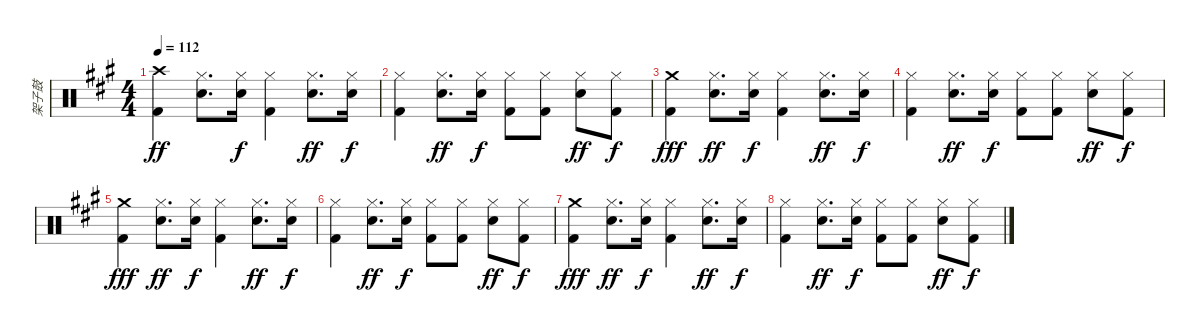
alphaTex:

\track ("架子鼓" "架子鼓") {instrument percussion}
\staff {score}
\articulation defaults
\ts (4 4)
\tempo 112
\clef neutral
\ks a
("Crash high (hit)" "Kick (hit) 2").4{dy ff} ("Hi-Hat (closed)" "Electric Snare (hit)").8{d} ("Hi-Hat (closed)" "Electric Snare (hit)").16{dy f} ("Hi-Hat (closed)" "Kick (hit) 2").4 ("Hi-Hat (closed)" "Electric Snare (hit)").8{d dy ff} ("Hi-Hat (closed)" "Electric Snare (hit)").16{dy f} |
("Hi-Hat (closed)" "Kick (hit) 2").4 ("Hi-Hat (closed)" "Electric Snare (hit)").8{d dy ff} ("Hi-Hat (closed)" "Electric Snare (hit)").16{dy f} ("Hi-Hat (closed)" "Kick (hit) 2").8 ("Hi-Hat (closed)" "Kick (hit) 2").8 ("Hi-Hat (closed)" "Electric Snare (hit)").8{dy ff} ("Hi-Hat (closed)" "Kick (hit) 2").8{dy f} |
("Crash medium (hit)" "Kick (hit) 2").4{dy fff} ("Hi-Hat (closed)" "Electric Snare (hit)").8{d dy ff} ("Hi-Hat (closed)" "Electric Snare (hit)").16{dy f} ("Hi-Hat (closed)" "Kick (hit) 2").4 ("Hi-Hat (closed)" "Electric Snare (hit)").8{d dy ff} ("Hi-Hat (closed)" "Electric Snare (hit)").16{dy f} |
("Hi-Hat (closed)" "Kick (hit) 2").4 ("Hi-Hat (closed)" "Electric Snare (hit)").8{d dy ff} ("Hi-Hat (closed)" "Electric Snare (hit)").16{dy f} ("Hi-Hat (closed)" "Kick (hit) 2").8 ("Hi-Hat (closed)" "Kick (hit) 2").8 ("Hi-Hat (closed)" "Electric Snare (hit)").8{dy ff} ("Hi-Hat (closed)" "Kick (hit) 2").8{dy f} |
("Crash medium (hit)" "Kick (hit) 2").4{dy fff} ("Hi-Hat (closed)" "Electric Snare (hit)").8{d dy ff} ("Hi-Hat (closed)" "Electric Snare (hit)").16{dy f} ("Hi-Hat (closed)" "Kick (hit) 2").4 ("Hi-Hat (closed)" "Electric Snare (hit)").8{d dy ff} ("Hi-Hat (closed)" "Electric Snare (hit)").16{dy f} |
("Hi-Hat (closed)" "Kick (hit) 2").4 ("Hi-Hat (closed)" "Electric Snare (hit)").8{d dy ff} ("Hi-Hat (closed)" "Electric Snare (hit)").16{dy f} ("Hi-Hat (closed)" "Kick (hit) 2").8 ("Hi-Hat (closed)" "Kick (hit) 2").8 ("Hi-Hat (closed)" "Electric Snare (hit)").8{dy ff} ("Hi-Hat (closed)" "Kick (hit) 2").8{dy f} |
("Crash medium (hit)" "Kick (hit) 2").4{dy fff} ("Hi-Hat (closed)" "Electric Snare (hit)").8{d dy ff} ("Hi-Hat (closed)" "Electric Snare (hit)").16{dy f} ("Hi-Hat (closed)" "Kick (hit) 2").4 ("Hi-Hat (closed)" "Electric Snare (hit)").8{d dy ff} ("Hi-Hat (closed)" "Electric Snare (hit)").16{dy f} |
("Hi-Hat (closed)" "Kick (hit) 2").4 ("Hi-Hat (closed)" "Electric Snare (hit)").8{d dy ff} ("Hi-Hat (closed)" "Electric Snare (hit)").16{dy f} ("Hi-Hat (closed)" "Kick (hit) 2").8 ("Hi-Hat (closed)" "Kick (hit) 2").8 ("Hi-Hat (closed)" "Electric Snare (hit)").8{dy ff} ("Hi-Hat (closed)" "Kick (hit) 2").8{dy f}
